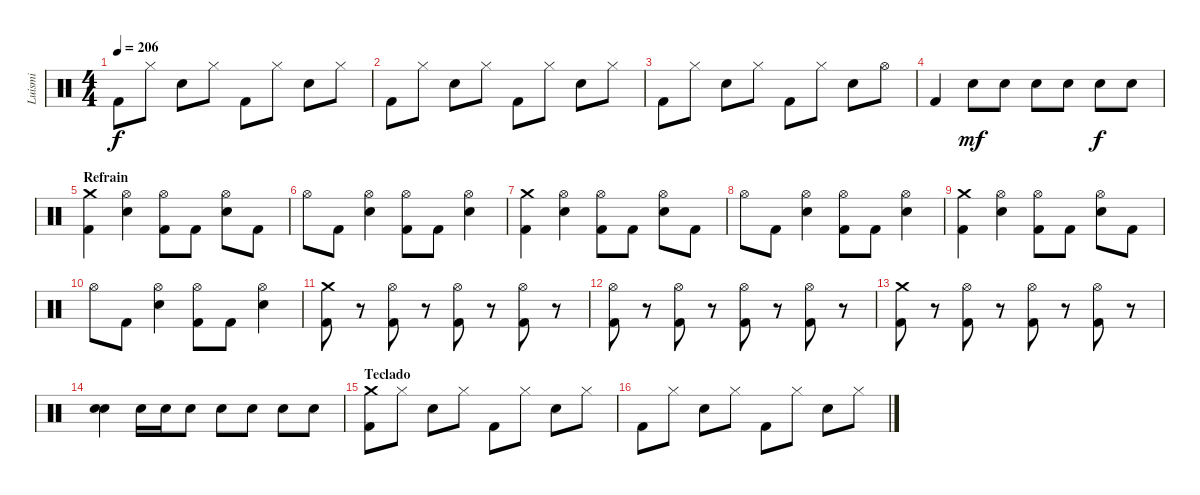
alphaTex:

\track ("Luismi" "Luismi") {instrument percussion}
\staff {score}
\articulation defaults
\ts (4 4)
\tempo 206
\clef neutral
\ks c "Kick (hit) 2".8{dy f} "Hi-Hat (closed)".8 "Snare (hit) 2".8 "Hi-Hat (closed)".8 "Kick (hit) 2".8 "Hi-Hat (closed)".8 "Snare (hit) 2".8 "Hi-Hat (closed)".8
|
"Kick (hit) 2".8 "Hi-Hat (closed)".8 "Snare (hit) 2".8 "Hi-Hat (closed)".8 "Kick (hit) 2".8 "Hi-Hat (closed)".8 "Snare (hit) 2".8 "Hi-Hat (closed)".8 |
"Kick (hit) 2".8 "Hi-Hat (closed)".8 "Snare (hit) 2".8 "Hi-Hat (closed)".8 "Kick (hit) 2".8 "Hi-Hat (closed)".8 "Snare (hit) 2".8 "Hi-Hat (open)".8 |
"Kick (hit) 2".4 "Snare (hit) 2".8{dy mf} "Snare (hit) 2".8 "Snare (hit) 2".8 "Snare (hit) 2".8 "Snare (hit) 2".8{dy f} "Snare (hit) 2".8 |
\section ("" "Refrain")
("Crash medium (hit)" "Kick (hit) 2").4 ("Hi-Hat (open)" "Snare (hit) 2").4 ("Hi-Hat (open)" "Kick (hit) 2").8 "Kick (hit) 2".8 ("Hi-Hat (open)" "Snare (hit) 2").8 "Kick (hit) 2".8 |
"Hi-Hat (open)".8 "Kick (hit) 2".8 ("Hi-Hat (open)" "Snare (hit) 2").4 ("Hi-Hat (open)" "Kick (hit) 2").8 "Kick (hit) 2".8 ("Hi-Hat (open)" "Snare (hit) 2").4 |
("Crash medium (hit)" "Kick (hit) 2").4 ("Hi-Hat (open)" "Snare (hit) 2").4 ("Hi-Hat (open)" "Kick (hit) 2").8 "Kick (hit) 2".8 ("Hi-Hat (open)" "Snare (hit) 2").8 "Kick (hit) 2".8 |
"Hi-Hat (open)".8 "Kick (hit) 2".8 ("Hi-Hat (open)" "Snare (hit) 2").4 ("Hi-Hat (open)" "Kick (hit) 2").8 "Kick (hit) 2".8 ("Hi-Hat (open)" "Snare (hit) 2").4 |
("Crash medium (hit)" "Kick (hit) 2").4 ("Hi-Hat (open)" "Snare (hit) 2").4 ("Hi-Hat (open)" "Kick (hit) 2").8 "Kick (hit) 2".8 ("Hi-Hat (open)" "Snare (hit) 2").8 "Kick (hit) 2".8 |
"Hi-Hat (open)".8 "Kick (hit) 2".8 ("Hi-Hat (open)" "Snare (hit) 2").4 ("Hi-Hat (open)" "Kick (hit) 2").8 "Kick (hit) 2".8 ("Hi-Hat (open)" "Snare (hit) 2").4 |
("Crash medium (hit)" "Kick (hit) 2").8 r.8 ("Hi-Hat (open)" "Kick (hit) 2").8 r.8 ("Hi-Hat (open)" "Kick (hit) 2").8 r.8 ("Hi-Hat (open)" "Kick (hit) 2").8 r.8 |
("Hi-Hat (open)" "Kick (hit) 2").8 r.8 ("Hi-Hat (open)" "Kick (hit) 2").8 r.8 ("Hi-Hat (open)" "Kick (hit) 2").8 r.8 ("Hi-Hat (open)" "Kick (hit) 2").8 r.8 |
("Crash medium (hit)" "Kick (hit) 2").8 r.8 ("Hi-Hat (open)" "Kick (hit) 2").8 r.8 ("Hi-Hat (open)" "Kick (hit) 2").8 r.8 ("Hi-Hat (open)" "Kick (hit) 2").8 r.8 |
("Snare (hit) 2" "Snare (hit) 2").4 "Snare (hit) 2".16 "Snare (hit) 2".16 "Snare (hit) 2".8 "Snare (hit) 2".8 "Snare (hit) 2".8 "Snare (hit) 2".8 "Snare (hit) 2".8 |
\section ("" "Teclado")
("Crash medium (hit)" "Kick (hit) 2").8 "Hi-Hat (closed)".8 "Snare (hit) 2".8 "Hi-Hat (closed)".8 "Kick (hit) 2".8 "Hi-Hat (closed)".8 "Snare (hit) 2".8 "Hi-Hat (closed)".8 |
"Kick (hit) 2".8 "Hi-Hat (closed)".8 "Snare (hit) 2".8 "Hi-Hat (closed)".8 "Kick (hit) 2".8 "Hi-Hat (closed)".8 "Snare (hit) 2".8 "Hi-Hat (closed)".8
